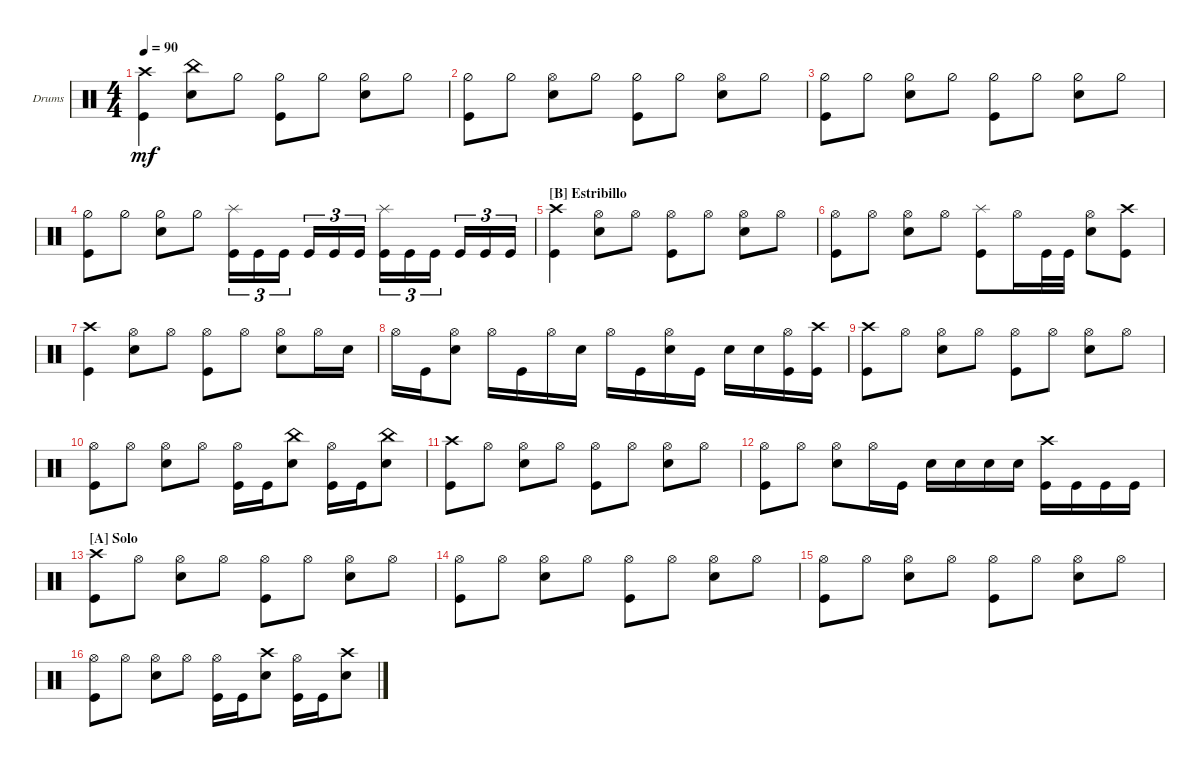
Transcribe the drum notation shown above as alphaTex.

\bracketExtendMode groupsimilarinstruments
\firstSystemTrackNameOrientation horizontal
\otherSystemsTrackNameOrientation horizontal
\track ("Arin Ilejay" "Drums") {instrument percussion}
\staff {score}
\articulation defaults
\ts (4 4)
\tempo 90
\clef neutral
\ks c
("Crash high (hit)" "Kick (hit)").4{dy mf} ("Snare (hit) 2" "China (hit)").8 "Hi-Hat (half)".8 ("Hi-Hat (half)" "Kick (hit)").8 "Hi-Hat (half)".8 ("Hi-Hat (half)" "Snare (hit) 2").8 "Hi-Hat (half)".8 |
("Kick (hit)" "Hi-Hat (half)").8 "Hi-Hat (half)".8 ("Hi-Hat (open)" "Snare (hit) 2").8 "Hi-Hat (half)".8 ("Hi-Hat (half)" "Kick (hit)").8 "Hi-Hat (half)".8 ("Hi-Hat (open)" "Snare (hit) 2").8 "Hi-Hat (half)".8 |
("Kick (hit)" "Hi-Hat (half)").8 "Hi-Hat (half)".8 ("Hi-Hat (half)" "Snare (hit) 2").8 "Hi-Hat (half)".8 ("Hi-Hat (half)" "Kick (hit)").8 "Hi-Hat (half)".8 ("Hi-Hat (half)" "Snare (hit) 2").8 "Hi-Hat (half)".8 |
("Hi-Hat (half)" "Kick (hit)").8 "Hi-Hat (half)".8 ("Snare (hit) 2" "Hi-Hat (half)").8 "Hi-Hat (half)".8 ("Kick (hit)" "Splash (hit)").16{tu (3 2)} "Kick (hit)".16{tu (3 2)} "Kick (hit)".16{tu (3 2)} "Kick (hit)".16{tu (3 2)} "Kick (hit)".16{tu (3 2)} "Kick (hit)".16{tu (3 2)} ("Kick (hit)" "Splash (hit)").16{tu (3 2)} "Kick (hit)".16{tu (3 2)} "Kick (hit)".16{tu (3 2)} "Kick (hit)".16{tu (3 2)} "Kick (hit)".16{tu (3 2)} "Kick (hit)".16{tu (3 2)} |
\section ("B" "Estribillo")
("Kick (hit)" "Crash high (hit)").4 ("Hi-Hat (open)" "Snare (hit) 2").8 "Hi-Hat (open)".8 ("Hi-Hat (open)" "Kick (hit)").8 "Hi-Hat (open)".8 ("Hi-Hat (open)" "Snare (hit) 2").8 "Hi-Hat (open)".8 |
("Hi-Hat (open)" "Kick (hit)").8 "Hi-Hat (open)".8 ("Hi-Hat (open)" "Snare (hit) 2").8 "Hi-Hat (open)".8 ("Kick (hit)" "Splash (hit)").8 "Hi-Hat (open)".16 "Kick (hit)".32 "Kick (hit)".32 ("Snare (hit) 2" "Hi-Hat (open)").8 ("Kick (hit)" "Crash high (hit)").8 |
("Kick (hit)" "Crash high (hit)").4 ("Hi-Hat (open)" "Snare (hit) 2").8 "Hi-Hat (open)".8 ("Hi-Hat (open)" "Kick (hit)").8 "Hi-Hat (open)".8 ("Hi-Hat (open)" "Snare (hit) 2").8 "Hi-Hat (open)".16 "Snare (hit) 2".16 |
"Hi-Hat (open)".16 "Kick (hit)".16 ("Hi-Hat (open)" "Snare (hit) 2").8 "Hi-Hat (open)".16 "Kick (hit)".16 "Hi-Hat (open)".16 "Snare (hit) 2".16 "Hi-Hat (open)".16 "Kick (hit)".16 ("Snare (hit) 2" "Hi-Hat (open)").16 "Kick (hit)".16 "Snare (hit) 2".16 "Snare (hit) 2".16 ("Kick (hit)" "Hi-Hat (open)").16 ("Kick (hit)" "Crash high (hit)").16 |
("Kick (hit)" "Crash high (hit)").8 "Hi-Hat (open)".8 ("Hi-Hat (open)" "Snare (hit) 2").8 "Hi-Hat (open)".8 ("Hi-Hat (open)" "Kick (hit)").8 "Hi-Hat (open)".8 ("Hi-Hat (open)" "Snare (hit) 2").8 "Hi-Hat (open)".8 |
("Hi-Hat (open)" "Kick (hit)").8 "Hi-Hat (open)".8 ("Hi-Hat (open)" "Snare (hit) 2").8 "Hi-Hat (open)".8 ("Kick (hit)" "Hi-Hat (open)").16 "Kick (hit)".16 ("Snare (hit) 2" "China (hit)").8 ("Kick (hit)" "Hi-Hat (open)").16 "Kick (hit)".16 ("Snare (hit) 2" "China (hit)").8 |
("Kick (hit)" "Crash high (hit)").8 "Hi-Hat (open)".8 ("Hi-Hat (open)" "Snare (hit) 2").8 "Hi-Hat (open)".8 ("Hi-Hat (open)" "Kick (hit)").8 "Hi-Hat (open)".8 ("Hi-Hat (open)" "Snare (hit) 2").8 "Hi-Hat (open)".8 |
("Hi-Hat (open)" "Kick (hit)").8 "Hi-Hat (open)".8 ("Hi-Hat (open)" "Snare (hit) 2").8 "Hi-Hat (open)".16 "Kick (hit)".16 "Snare (hit) 2".16 "Snare (hit) 2".16 "Snare (hit) 2".16 "Snare (hit) 2".16 ("Kick (hit)" "Crash high (hit)").16 "Kick (hit)".16 "Kick (hit)".16 "Kick (hit)".16 |
\section ("A" "Solo")
("Kick (hit)" "Crash high (hit)").8 "Hi-Hat (open)".8 ("Hi-Hat (open)" "Snare (hit) 2").8 "Hi-Hat (open)".8 ("Hi-Hat (open)" "Kick (hit)").8 "Hi-Hat (open)".8 ("Hi-Hat (open)" "Snare (hit) 2").8 "Hi-Hat (open)".8 |
("Kick (hit)" "Hi-Hat (open)").8 "Hi-Hat (open)".8 ("Hi-Hat (open)" "Snare (hit) 2").8 "Hi-Hat (open)".8 ("Hi-Hat (open)" "Kick (hit)").8 "Hi-Hat (open)".8 ("Hi-Hat (open)" "Snare (hit) 2").8 "Hi-Hat (open)".8 |
("Kick (hit)" "Hi-Hat (open)").8 "Hi-Hat (open)".8 ("Hi-Hat (open)" "Snare (hit) 2").8 "Hi-Hat (open)".8 ("Hi-Hat (open)" "Kick (hit)").8 "Hi-Hat (open)".8 ("Hi-Hat (open)" "Snare (hit) 2").8 "Hi-Hat (open)".8 |
("Hi-Hat (open)" "Kick (hit)").8 "Hi-Hat (open)".8 ("Hi-Hat (open)" "Snare (hit) 2").8 "Hi-Hat (open)".8 ("Kick (hit)" "Hi-Hat (open)").16 "Kick (hit)".16 ("Snare (hit) 2" "Crash high (hit)").8 ("Kick (hit)" "Hi-Hat (open)").16 "Kick (hit)".16 ("Snare (hit) 2" "Crash high (hit)").8
